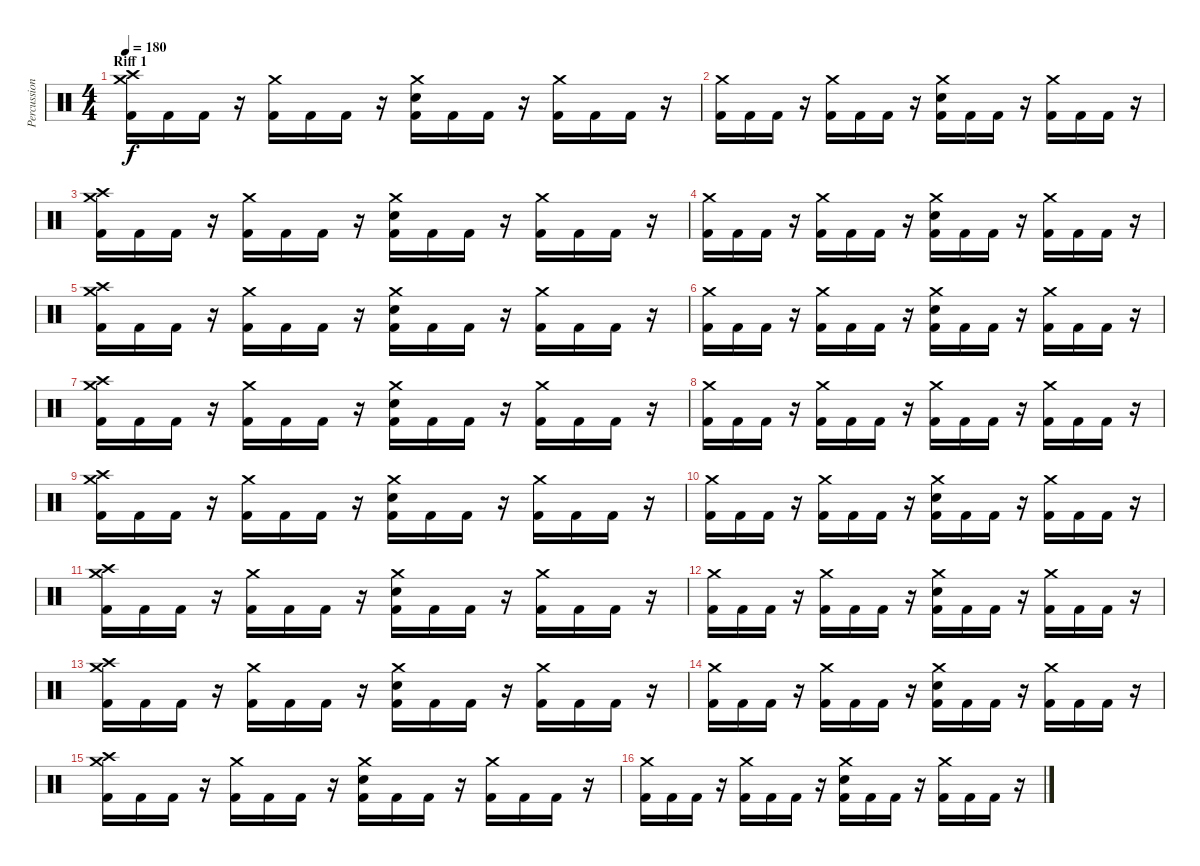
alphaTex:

\track ("Percussion" "Percussion") {instrument percussion}
\staff {score}
\articulation defaults
\ts (4 4)
\section ("" "Riff 1")
\tempo 180
\clef neutral
\ks c
("Crash medium (hit)" "Crash high (hit)" "Kick (hit) 2").16{dy f} "Kick (hit) 2".16 "Kick (hit) 2".16 r.16 ("Crash medium (hit)" "Kick (hit) 2").16 "Kick (hit) 2".16 "Kick (hit) 2".16 r.16 ("Crash medium (hit)" "Electric Snare (hit)" "Kick (hit) 2").16 "Kick (hit) 2".16 "Kick (hit) 2".16 r.16 ("Crash medium (hit)" "Kick (hit) 2").16 "Kick (hit) 2".16 "Kick (hit) 2".16 r.16 |
("Crash medium (hit)" "Kick (hit) 2").16 "Kick (hit) 2".16 "Kick (hit) 2".16 r.16 ("Crash medium (hit)" "Kick (hit) 2").16 "Kick (hit) 2".16 "Kick (hit) 2".16 r.16 ("Crash medium (hit)" "Electric Snare (hit)" "Kick (hit) 2").16 "Kick (hit) 2".16 "Kick (hit) 2".16 r.16 ("Crash medium (hit)" "Kick (hit) 2").16 "Kick (hit) 2".16 "Kick (hit) 2".16 r.16 |
("Crash medium (hit)" "Crash high (hit)" "Kick (hit) 2").16 "Kick (hit) 2".16 "Kick (hit) 2".16 r.16 ("Crash medium (hit)" "Kick (hit) 2").16 "Kick (hit) 2".16 "Kick (hit) 2".16 r.16 ("Crash medium (hit)" "Electric Snare (hit)" "Kick (hit) 2").16 "Kick (hit) 2".16 "Kick (hit) 2".16 r.16 ("Crash medium (hit)" "Kick (hit) 2").16 "Kick (hit) 2".16 "Kick (hit) 2".16 r.16 |
("Crash medium (hit)" "Kick (hit) 2").16 "Kick (hit) 2".16 "Kick (hit) 2".16 r.16 ("Crash medium (hit)" "Kick (hit) 2").16 "Kick (hit) 2".16 "Kick (hit) 2".16 r.16 ("Crash medium (hit)" "Electric Snare (hit)" "Kick (hit) 2").16 "Kick (hit) 2".16 "Kick (hit) 2".16 r.16 ("Crash medium (hit)" "Kick (hit) 2").16 "Kick (hit) 2".16 "Kick (hit) 2".16 r.16 |
("Crash medium (hit)" "Crash high (hit)" "Kick (hit) 2").16 "Kick (hit) 2".16 "Kick (hit) 2".16 r.16 ("Crash medium (hit)" "Kick (hit) 2").16 "Kick (hit) 2".16 "Kick (hit) 2".16 r.16 ("Crash medium (hit)" "Electric Snare (hit)" "Kick (hit) 2").16 "Kick (hit) 2".16 "Kick (hit) 2".16 r.16 ("Crash medium (hit)" "Kick (hit) 2").16 "Kick (hit) 2".16 "Kick (hit) 2".16 r.16 |
("Crash medium (hit)" "Kick (hit) 2").16 "Kick (hit) 2".16 "Kick (hit) 2".16 r.16 ("Crash medium (hit)" "Kick (hit) 2").16 "Kick (hit) 2".16 "Kick (hit) 2".16 r.16 ("Crash medium (hit)" "Electric Snare (hit)" "Kick (hit) 2").16 "Kick (hit) 2".16 "Kick (hit) 2".16 r.16 ("Crash medium (hit)" "Kick (hit) 2").16 "Kick (hit) 2".16 "Kick (hit) 2".16 r.16 |
("Crash medium (hit)" "Crash high (hit)" "Kick (hit) 2").16 "Kick (hit) 2".16 "Kick (hit) 2".16 r.16 ("Crash medium (hit)" "Kick (hit) 2").16 "Kick (hit) 2".16 "Kick (hit) 2".16 r.16 ("Crash medium (hit)" "Electric Snare (hit)" "Kick (hit) 2").16 "Kick (hit) 2".16 "Kick (hit) 2".16 r.16 ("Crash medium (hit)" "Kick (hit) 2").16 "Kick (hit) 2".16 "Kick (hit) 2".16 r.16 |
("Crash medium (hit)" "Kick (hit) 2").16 "Kick (hit) 2".16 "Kick (hit) 2".16 r.16 ("Crash medium (hit)" "Kick (hit) 2").16 "Kick (hit) 2".16 "Kick (hit) 2".16 r.16 ("Crash medium (hit)" "Kick (hit) 2").16 "Kick (hit) 2".16 "Kick (hit) 2".16 r.16 ("Crash medium (hit)" "Kick (hit) 2").16 "Kick (hit) 2".16 "Kick (hit) 2".16 r.16 |
("Crash medium (hit)" "Crash high (hit)" "Kick (hit) 2").16 "Kick (hit) 2".16 "Kick (hit) 2".16 r.16 ("Crash medium (hit)" "Kick (hit) 2").16 "Kick (hit) 2".16 "Kick (hit) 2".16 r.16 ("Crash medium (hit)" "Electric Snare (hit)" "Kick (hit) 2").16 "Kick (hit) 2".16 "Kick (hit) 2".16 r.16 ("Crash medium (hit)" "Kick (hit) 2").16 "Kick (hit) 2".16 "Kick (hit) 2".16 r.16 |
("Crash medium (hit)" "Kick (hit) 2").16 "Kick (hit) 2".16 "Kick (hit) 2".16 r.16 ("Crash medium (hit)" "Kick (hit) 2").16 "Kick (hit) 2".16 "Kick (hit) 2".16 r.16 ("Crash medium (hit)" "Electric Snare (hit)" "Kick (hit) 2").16 "Kick (hit) 2".16 "Kick (hit) 2".16 r.16 ("Crash medium (hit)" "Kick (hit) 2").16 "Kick (hit) 2".16 "Kick (hit) 2".16 r.16 |
("Crash medium (hit)" "Crash high (hit)" "Kick (hit) 2").16 "Kick (hit) 2".16 "Kick (hit) 2".16 r.16 ("Crash medium (hit)" "Kick (hit) 2").16 "Kick (hit) 2".16 "Kick (hit) 2".16 r.16 ("Crash medium (hit)" "Electric Snare (hit)" "Kick (hit) 2").16 "Kick (hit) 2".16 "Kick (hit) 2".16 r.16 ("Crash medium (hit)" "Kick (hit) 2").16 "Kick (hit) 2".16 "Kick (hit) 2".16 r.16 |
("Crash medium (hit)" "Kick (hit) 2").16 "Kick (hit) 2".16 "Kick (hit) 2".16 r.16 ("Crash medium (hit)" "Kick (hit) 2").16 "Kick (hit) 2".16 "Kick (hit) 2".16 r.16 ("Crash medium (hit)" "Electric Snare (hit)" "Kick (hit) 2").16 "Kick (hit) 2".16 "Kick (hit) 2".16 r.16 ("Crash medium (hit)" "Kick (hit) 2").16 "Kick (hit) 2".16 "Kick (hit) 2".16 r.16 |
("Crash medium (hit)" "Crash high (hit)" "Kick (hit) 2").16 "Kick (hit) 2".16 "Kick (hit) 2".16 r.16 ("Crash medium (hit)" "Kick (hit) 2").16 "Kick (hit) 2".16 "Kick (hit) 2".16 r.16 ("Crash medium (hit)" "Electric Snare (hit)" "Kick (hit) 2").16 "Kick (hit) 2".16 "Kick (hit) 2".16 r.16 ("Crash medium (hit)" "Kick (hit) 2").16 "Kick (hit) 2".16 "Kick (hit) 2".16 r.16 |
("Crash medium (hit)" "Kick (hit) 2").16 "Kick (hit) 2".16 "Kick (hit) 2".16 r.16 ("Crash medium (hit)" "Kick (hit) 2").16 "Kick (hit) 2".16 "Kick (hit) 2".16 r.16 ("Crash medium (hit)" "Electric Snare (hit)" "Kick (hit) 2").16 "Kick (hit) 2".16 "Kick (hit) 2".16 r.16 ("Crash medium (hit)" "Kick (hit) 2").16 "Kick (hit) 2".16 "Kick (hit) 2".16 r.16 |
("Crash medium (hit)" "Crash high (hit)" "Kick (hit) 2").16 "Kick (hit) 2".16 "Kick (hit) 2".16 r.16 ("Crash medium (hit)" "Kick (hit) 2").16 "Kick (hit) 2".16 "Kick (hit) 2".16 r.16 ("Crash medium (hit)" "Electric Snare (hit)" "Kick (hit) 2").16 "Kick (hit) 2".16 "Kick (hit) 2".16 r.16 ("Crash medium (hit)" "Kick (hit) 2").16 "Kick (hit) 2".16 "Kick (hit) 2".16 r.16 |
("Crash medium (hit)" "Kick (hit) 2").16 "Kick (hit) 2".16 "Kick (hit) 2".16 r.16 ("Crash medium (hit)" "Kick (hit) 2").16 "Kick (hit) 2".16 "Kick (hit) 2".16 r.16 ("Crash medium (hit)" "Electric Snare (hit)" "Kick (hit) 2").16 "Kick (hit) 2".16 "Kick (hit) 2".16 r.16 ("Crash medium (hit)" "Kick (hit) 2").16 "Kick (hit) 2".16 "Kick (hit) 2".16 r.16
